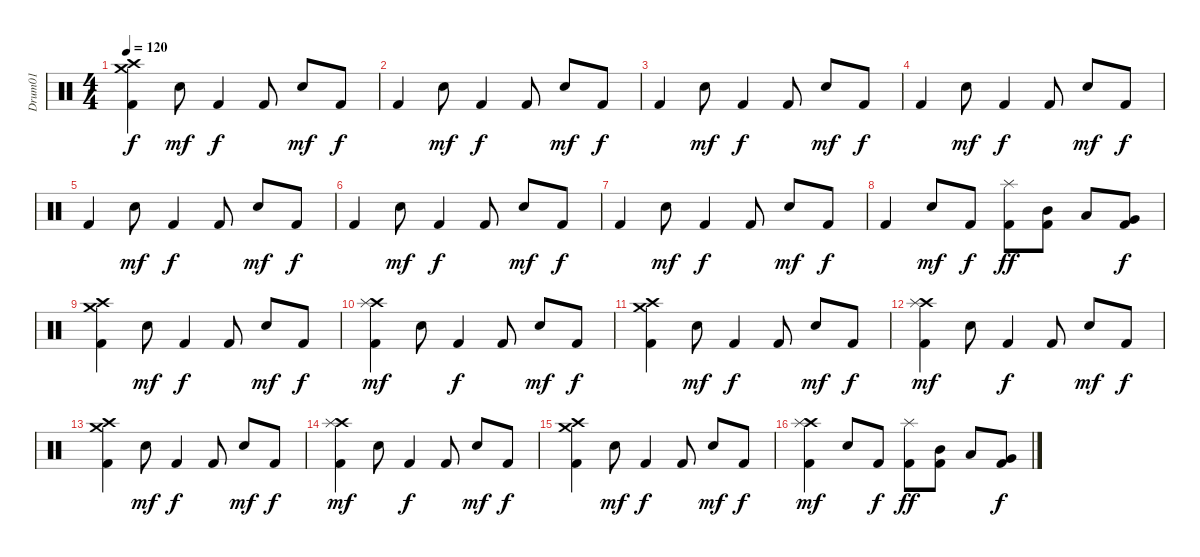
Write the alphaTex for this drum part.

\track ("Drum01" "Drum01") {instrument percussion}
\staff {score}
\articulation defaults
\ts (4 4)
\tempo 120
\clef neutral
\ks c
("Crash high (hit)" "Crash medium (hit)" "Kick (hit) 2").4{dy f} "Snare (hit) 2".8{dy mf} "Kick (hit) 2".4{dy f} "Kick (hit) 2".8 "Snare (hit) 2".8{dy mf} "Kick (hit) 2".8{dy f} |
"Kick (hit) 2".4 "Snare (hit) 2".8{dy mf} "Kick (hit) 2".4{dy f} "Kick (hit) 2".8 "Snare (hit) 2".8{dy mf} "Kick (hit) 2".8{dy f} |
"Kick (hit) 2".4 "Snare (hit) 2".8{dy mf} "Kick (hit) 2".4{dy f} "Kick (hit) 2".8 "Snare (hit) 2".8{dy mf} "Kick (hit) 2".8{dy f} |
"Kick (hit) 2".4 "Snare (hit) 2".8{dy mf} "Kick (hit) 2".4{dy f} "Kick (hit) 2".8 "Snare (hit) 2".8{dy mf} "Kick (hit) 2".8{dy f} |
"Kick (hit) 2".4 "Snare (hit) 2".8{dy mf} "Kick (hit) 2".4{dy f} "Kick (hit) 2".8 "Snare (hit) 2".8{dy mf} "Kick (hit) 2".8{dy f} |
"Kick (hit) 2".4 "Snare (hit) 2".8{dy mf} "Kick (hit) 2".4{dy f} "Kick (hit) 2".8 "Snare (hit) 2".8{dy mf} "Kick (hit) 2".8{dy f} |
"Kick (hit) 2".4 "Snare (hit) 2".8{dy mf} "Kick (hit) 2".4{dy f} "Kick (hit) 2".8 "Snare (hit) 2".8{dy mf} "Kick (hit) 2".8{dy f} |
"Kick (hit) 2".4 "Snare (hit) 2".8{dy mf} "Kick (hit) 2".8{dy f} ("Splash (hit)" "Kick (hit) 2").8{dy ff} ("Mid Tom (hit)" "Kick (hit) 2").8 "Low Tom (hit)".8 ("Very Low Tom (hit)" "Kick (hit) 2").8{dy f} |
("Crash high (hit)" "Crash medium (hit)" "Kick (hit) 2").4 "Snare (hit) 2".8{dy mf} "Kick (hit) 2".4{dy f} "Kick (hit) 2".8 "Snare (hit) 2".8{dy mf} "Kick (hit) 2".8{dy f} |
("Crash high (hit)" "Splash (hit)" "Kick (hit) 2").4{dy mf} "Snare (hit) 2".8 "Kick (hit) 2".4{dy f} "Kick (hit) 2".8 "Snare (hit) 2".8{dy mf} "Kick (hit) 2".8{dy f} |
("Crash high (hit)" "Crash medium (hit)" "Kick (hit) 2").4 "Snare (hit) 2".8{dy mf} "Kick (hit) 2".4{dy f} "Kick (hit) 2".8 "Snare (hit) 2".8{dy mf} "Kick (hit) 2".8{dy f} |
("Crash high (hit)" "Splash (hit)" "Kick (hit) 2").4{dy mf} "Snare (hit) 2".8 "Kick (hit) 2".4{dy f} "Kick (hit) 2".8 "Snare (hit) 2".8{dy mf} "Kick (hit) 2".8{dy f} |
("Crash high (hit)" "Crash medium (hit)" "Kick (hit) 2").4 "Snare (hit) 2".8{dy mf} "Kick (hit) 2".4{dy f} "Kick (hit) 2".8 "Snare (hit) 2".8{dy mf} "Kick (hit) 2".8{dy f} |
("Crash high (hit)" "Splash (hit)" "Kick (hit) 2").4{dy mf} "Snare (hit) 2".8 "Kick (hit) 2".4{dy f} "Kick (hit) 2".8 "Snare (hit) 2".8{dy mf} "Kick (hit) 2".8{dy f} |
("Crash high (hit)" "Crash medium (hit)" "Kick (hit) 2").4 "Snare (hit) 2".8{dy mf} "Kick (hit) 2".4{dy f} "Kick (hit) 2".8 "Snare (hit) 2".8{dy mf} "Kick (hit) 2".8{dy f} |
("Crash high (hit)" "Splash (hit)" "Kick (hit) 2").4{dy mf} "Snare (hit) 2".8 "Kick (hit) 2".8{dy f} ("Splash (hit)" "Kick (hit) 2").8{dy ff} ("Mid Tom (hit)" "Kick (hit) 2").8 "Low Tom (hit)".8 ("Very Low Tom (hit)" "Kick (hit) 2").8{dy f}
